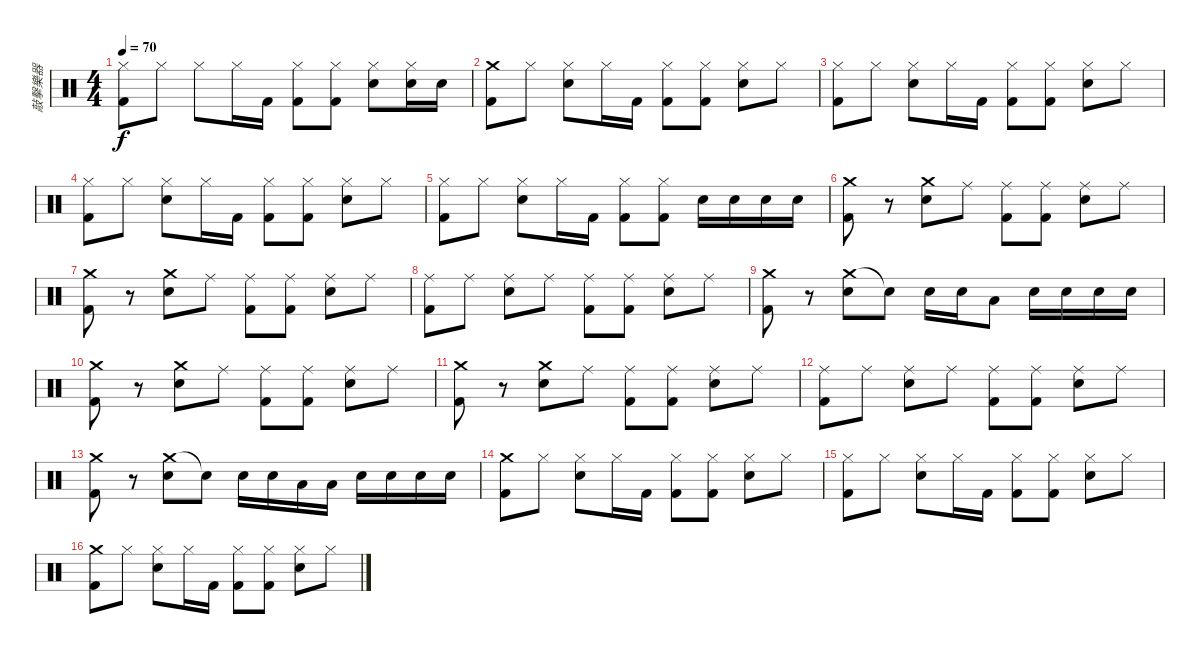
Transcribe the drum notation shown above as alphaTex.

\track ("敲擊樂器" "敲擊樂器") {instrument percussion}
\staff {score}
\articulation defaults
\ts (4 4)
\tempo 70
\clef neutral
\ks c
("Hi-Hat (closed)" "Kick (hit) 2").8{dy f} "Hi-Hat (closed)".8 "Hi-Hat (closed)".8 "Hi-Hat (closed)".16 "Kick (hit) 2".16 ("Hi-Hat (closed)" "Kick (hit) 2").8 ("Hi-Hat (closed)" "Kick (hit) 2").8 ("Hi-Hat (closed)" "Snare (hit) 2").8 ("Hi-Hat (closed)" "Snare (hit) 2").16 "Snare (hit) 2".16 |
("Crash medium (hit)" "Kick (hit) 2").8 "Hi-Hat (closed)".8 ("Hi-Hat (closed)" "Snare (hit) 2").8 "Hi-Hat (closed)".16 "Kick (hit) 2".16 ("Hi-Hat (closed)" "Kick (hit) 2").8 ("Hi-Hat (closed)" "Kick (hit) 2").8 ("Hi-Hat (closed)" "Snare (hit) 2").8 "Hi-Hat (closed)".8 |
("Hi-Hat (closed)" "Kick (hit) 2").8 "Hi-Hat (closed)".8 ("Hi-Hat (closed)" "Snare (hit) 2").8 "Hi-Hat (closed)".16 "Kick (hit) 2".16 ("Hi-Hat (closed)" "Kick (hit) 2").8 ("Hi-Hat (closed)" "Kick (hit) 2").8 ("Hi-Hat (closed)" "Snare (hit) 2").8 "Hi-Hat (closed)".8 |
("Hi-Hat (closed)" "Kick (hit) 2").8 "Hi-Hat (closed)".8 ("Hi-Hat (closed)" "Snare (hit) 2").8 "Hi-Hat (closed)".16 "Kick (hit) 2".16 ("Hi-Hat (closed)" "Kick (hit) 2").8 ("Hi-Hat (closed)" "Kick (hit) 2").8 ("Hi-Hat (closed)" "Snare (hit) 2").8 "Hi-Hat (closed)".8 |
("Hi-Hat (closed)" "Kick (hit) 2").8 "Hi-Hat (closed)".8 ("Hi-Hat (closed)" "Snare (hit) 2").8 "Hi-Hat (closed)".16 "Kick (hit) 2".16 ("Hi-Hat (closed)" "Kick (hit) 2").8 ("Hi-Hat (closed)" "Kick (hit) 2").8 "Snare (hit) 2".16 "Snare (hit) 2".16 "Snare (hit) 2".16 "Snare (hit) 2".16 |
("Crash medium (hit)" "Kick (hit) 2").8 r.8 ("Crash medium (hit)" "Snare (hit) 2").8 "Ride (middle)".8 ("Ride (middle)" "Kick (hit) 2").8 ("Ride (middle)" "Kick (hit) 2").8 ("Ride (middle)" "Snare (hit) 2").8 "Ride (middle)".8 |
("Crash medium (hit)" "Kick (hit) 2").8 r.8 ("Crash medium (hit)" "Snare (hit) 2").8 "Ride (middle)".8 ("Ride (middle)" "Kick (hit) 2").8 ("Ride (middle)" "Kick (hit) 2").8 ("Ride (middle)" "Snare (hit) 2").8 "Ride (middle)".8 |
("Ride (middle)" "Kick (hit) 2").8 "Ride (middle)".8 ("Ride (middle)" "Snare (hit) 2").8 "Ride (middle)".8 ("Ride (middle)" "Kick (hit) 2").8 ("Ride (middle)" "Kick (hit) 2").8 ("Ride (middle)" "Snare (hit) 2").8 "Ride (middle)".8 |
("Crash medium (hit)" "Kick (hit) 2").8 r.8 ("Crash medium (hit)" "Snare (hit) 2").8 "Snare (hit) 2"{t}.8 "Snare (hit) 2".16 "Snare (hit) 2".16 "Low Floor Tom (hit)".8 "Snare (hit) 2".16 "Snare (hit) 2".16 "Snare (hit) 2".16 "Snare (hit) 2".16 |
("Crash medium (hit)" "Kick (hit) 2").8 r.8 ("Crash medium (hit)" "Snare (hit) 2").8 "Ride (middle)".8 ("Ride (middle)" "Kick (hit) 2").8 ("Ride (middle)" "Kick (hit) 2").8 ("Ride (middle)" "Snare (hit) 2").8 "Ride (middle)".8 |
("Crash medium (hit)" "Kick (hit) 2").8 r.8 ("Crash medium (hit)" "Snare (hit) 2").8 "Ride (middle)".8 ("Ride (middle)" "Kick (hit) 2").8 ("Ride (middle)" "Kick (hit) 2").8 ("Ride (middle)" "Snare (hit) 2").8 "Ride (middle)".8 |
("Ride (middle)" "Kick (hit) 2").8 "Ride (middle)".8 ("Ride (middle)" "Snare (hit) 2").8 "Ride (middle)".8 ("Ride (middle)" "Kick (hit) 2").8 ("Ride (middle)" "Kick (hit) 2").8 ("Ride (middle)" "Snare (hit) 2").8 "Ride (middle)".8 |
("Crash medium (hit)" "Kick (hit) 2").8 r.8 ("Crash medium (hit)" "Snare (hit) 2").8 "Snare (hit) 2"{t}.8 "Snare (hit) 2".16 "Snare (hit) 2".16 "Low Floor Tom (hit)".16 "Low Floor Tom (hit)".16 "Snare (hit) 2".16 "Snare (hit) 2".16 "Snare (hit) 2".16 "Snare (hit) 2".16 |
("Crash medium (hit)" "Kick (hit) 2").8 "Hi-Hat (closed)".8 ("Hi-Hat (closed)" "Snare (hit) 2").8 "Hi-Hat (closed)".16 "Kick (hit) 2".16 ("Hi-Hat (closed)" "Kick (hit) 2").8 ("Hi-Hat (closed)" "Kick (hit) 2").8 ("Hi-Hat (closed)" "Snare (hit) 2").8 "Hi-Hat (closed)".8 |
("Hi-Hat (closed)" "Kick (hit) 2").8 "Hi-Hat (closed)".8 ("Hi-Hat (closed)" "Snare (hit) 2").8 "Hi-Hat (closed)".16 "Kick (hit) 2".16 ("Hi-Hat (closed)" "Kick (hit) 2").8 ("Hi-Hat (closed)" "Kick (hit) 2").8 ("Hi-Hat (closed)" "Snare (hit) 2").8 "Hi-Hat (closed)".8 |
("Crash medium (hit)" "Kick (hit) 2").8 "Hi-Hat (closed)".8 ("Hi-Hat (closed)" "Snare (hit) 2").8 "Hi-Hat (closed)".16 "Kick (hit) 2".16 ("Hi-Hat (closed)" "Kick (hit) 2").8 ("Hi-Hat (closed)" "Kick (hit) 2").8 ("Hi-Hat (closed)" "Snare (hit) 2").8 "Hi-Hat (closed)".8
